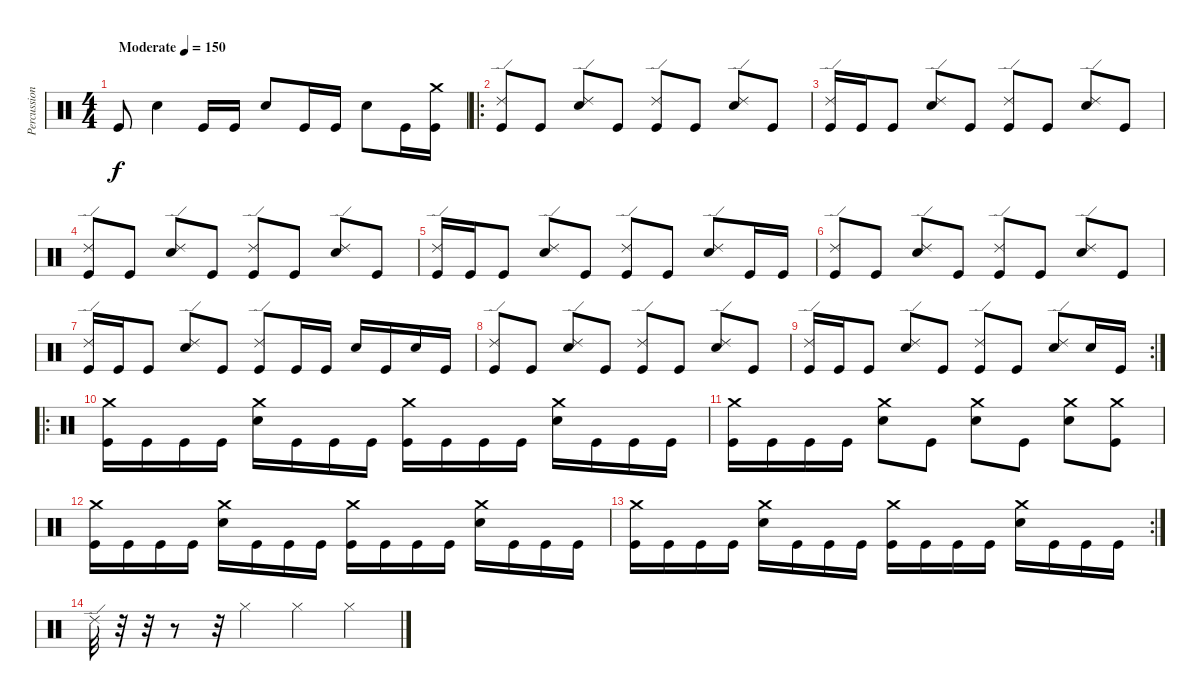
\track ("Percussion" "Percussion") {instrument percussion}
\staff {score}
\articulation defaults
\ts (4 4)
\tempo (150 "Moderate")
\clef neutral
\ks c "Kick (hit)".8{dy f} "Electric Snare (hit)".4 "Kick (hit)".16 "Kick (hit)".16 "Electric Snare (hit)".8 "Kick (hit)".16 "Kick (hit)".16 "Electric Snare (hit)".8 "Kick (hit)".16
("Crash medium (hit)" "Kick (hit)").16 |
\ro
("Ride (edge) 2" "Kick (hit)").8 "Kick (hit)".8 ("Ride (edge) 2" "Electric Snare (hit)").8 "Kick (hit)".8 ("Ride (edge) 2" "Kick (hit)").8 "Kick (hit)".8 ("Ride (edge) 2" "Electric Snare (hit)").8 "Kick (hit)".8 |
("Ride (edge) 2" "Kick (hit)").16 "Kick (hit)".16 "Kick (hit)".8 ("Ride (edge) 2" "Electric Snare (hit)").8 "Kick (hit)".8 ("Ride (edge) 2" "Kick (hit)").8 "Kick (hit)".8 ("Ride (edge) 2" "Electric Snare (hit)").8 "Kick (hit)".8 |
("Ride (edge) 2" "Kick (hit)").8 "Kick (hit)".8 ("Ride (edge) 2" "Electric Snare (hit)").8 "Kick (hit)".8 ("Ride (edge) 2" "Kick (hit)").8 "Kick (hit)".8 ("Ride (edge) 2" "Electric Snare (hit)").8 "Kick (hit)".8 |
("Ride (edge) 2" "Kick (hit)").16 "Kick (hit)".16 "Kick (hit)".8 ("Ride (edge) 2" "Electric Snare (hit)").8 "Kick (hit)".8 ("Ride (edge) 2" "Kick (hit)").8 "Kick (hit)".8 ("Ride (edge) 2" "Electric Snare (hit)").8 "Kick (hit)".16 "Kick (hit)".16 |
("Ride (edge) 2" "Kick (hit)").8 "Kick (hit)".8 ("Ride (edge) 2" "Electric Snare (hit)").8 "Kick (hit)".8 ("Ride (edge) 2" "Kick (hit)").8 "Kick (hit)".8 ("Ride (edge) 2" "Electric Snare (hit)").8 "Kick (hit)".8 |
("Ride (edge) 2" "Kick (hit)").16 "Kick (hit)".16 "Kick (hit)".8 ("Ride (edge) 2" "Electric Snare (hit)").8 "Kick (hit)".8 ("Ride (edge) 2" "Kick (hit)").8 "Kick (hit)".16 "Kick (hit)".16 "Electric Snare (hit)".16 "Kick (hit)".16 "Electric Snare (hit)".16 "Kick (hit)".16 |
("Ride (edge) 2" "Kick (hit)").8 "Kick (hit)".8 ("Ride (edge) 2" "Electric Snare (hit)").8 "Kick (hit)".8 ("Ride (edge) 2" "Kick (hit)").8 "Kick (hit)".8 ("Ride (edge) 2" "Electric Snare (hit)").8 "Kick (hit)".8 |
\rc 2
("Ride (edge) 2" "Kick (hit)").16 "Kick (hit)".16 "Kick (hit)".8 ("Ride (edge) 2" "Electric Snare (hit)").8 "Kick (hit)".8 ("Ride (edge) 2" "Kick (hit)").8 "Kick (hit)".8 ("Ride (edge) 2" "Electric Snare (hit)").8 "Electric Snare (hit)".16 "Kick (hit)".16 |
\ro
("Crash medium (hit)" "Kick (hit)").16 "Kick (hit)".16 "Kick (hit)".16 "Kick (hit)".16 ("Crash medium (hit)" "Electric Snare (hit)").16 "Kick (hit)".16 "Kick (hit)".16 "Kick (hit)".16 ("Crash medium (hit)" "Kick (hit)").16 "Kick (hit)".16 "Kick (hit)".16 "Kick (hit)".16 ("Crash medium (hit)" "Electric Snare (hit)").16 "Kick (hit)".16 "Kick (hit)".16 "Kick (hit)".16 |
("Crash medium (hit)" "Kick (hit)").16 "Kick (hit)".16 "Kick (hit)".16 "Kick (hit)".16 ("Crash medium (hit)" "Electric Snare (hit)").8 "Kick (hit)".8 ("Crash medium (hit)" "Electric Snare (hit)").8 "Kick (hit)".8 ("Crash medium (hit)" "Electric Snare (hit)").8 ("Crash medium (hit)" "Kick (hit)").8 |
("Crash medium (hit)" "Kick (hit)").16 "Kick (hit)".16 "Kick (hit)".16 "Kick (hit)".16 ("Crash medium (hit)" "Electric Snare (hit)").16 "Kick (hit)".16 "Kick (hit)".16 "Kick (hit)".16 ("Crash medium (hit)" "Kick (hit)").16 "Kick (hit)".16 "Kick (hit)".16 "Kick (hit)".16 ("Crash medium (hit)" "Electric Snare (hit)").16 "Kick (hit)".16 "Kick (hit)".16 "Kick (hit)".16 |
\rc 2
("Crash medium (hit)" "Kick (hit)").16 "Kick (hit)".16 "Kick (hit)".16 "Kick (hit)".16 ("Crash medium (hit)" "Electric Snare (hit)").16 "Kick (hit)".16 "Kick (hit)".16 "Kick (hit)".16 ("Crash medium (hit)" "Kick (hit)").16 "Kick (hit)".16 "Kick (hit)".16 "Kick (hit)".16 ("Crash medium (hit)" "Electric Snare (hit)").16 "Kick (hit)".16 "Kick (hit)".16 "Kick (hit)".16 |
"Ride (edge) 2".32 r.32 r.32 r.8 r.32 "Hi-Hat (closed)".4 "Hi-Hat (closed)".4 "Hi-Hat (closed)".4
